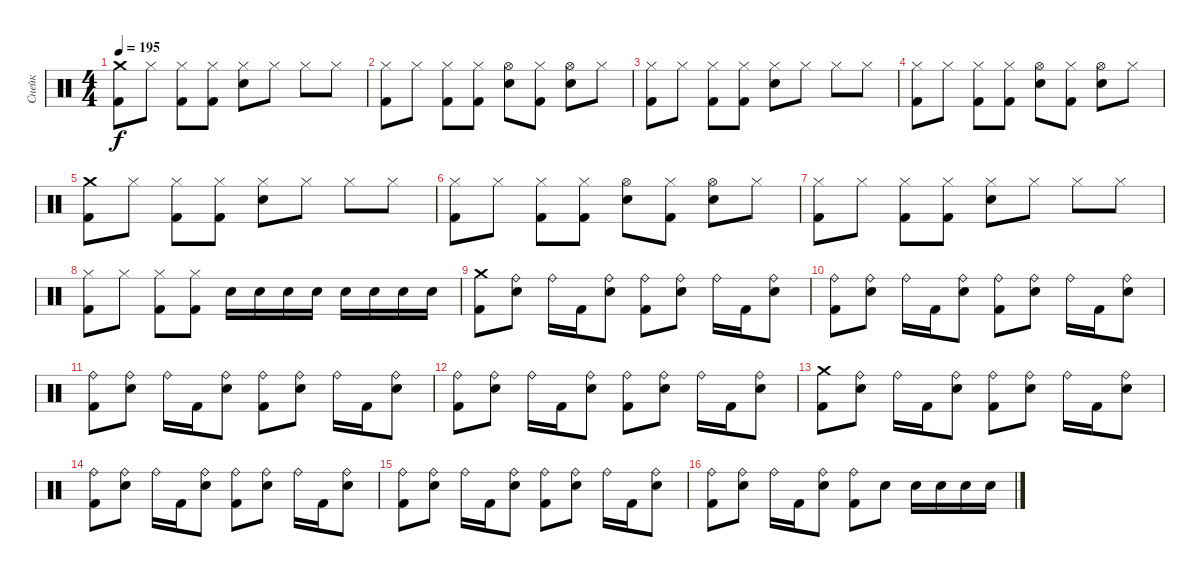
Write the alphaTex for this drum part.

\track ("Снейк" "Снейк") {instrument percussion}
\staff {score}
\articulation defaults
\ts (4 4)
\tempo 195
\clef neutral
\ks c
("Crash medium (hit)" "Kick (hit) 2").8{dy f} "Hi-Hat (closed)".8 ("Kick (hit) 2" "Hi-Hat (closed)").8 ("Kick (hit) 2" "Hi-Hat (closed)").8 ("Electric Snare (hit)" "Hi-Hat (closed)").8 "Hi-Hat (closed)".8 "Hi-Hat (closed)".8 "Hi-Hat (closed)".8 |
("Kick (hit) 2" "Hi-Hat (closed)").8 "Hi-Hat (closed)".8 ("Kick (hit) 2" "Hi-Hat (closed)").8 ("Kick (hit) 2" "Hi-Hat (closed)").8 ("Electric Snare (hit)" "Hi-Hat (open)").8 ("Kick (hit) 2" "Hi-Hat (closed)").8 ("Electric Snare (hit)" "Hi-Hat (open)").8 "Hi-Hat (closed)".8 |
("Kick (hit) 2" "Hi-Hat (closed)").8 "Hi-Hat (closed)".8 ("Kick (hit) 2" "Hi-Hat (closed)").8 ("Kick (hit) 2" "Hi-Hat (closed)").8 ("Electric Snare (hit)" "Hi-Hat (closed)").8 "Hi-Hat (closed)".8 "Hi-Hat (closed)".8 "Hi-Hat (closed)".8 |
("Kick (hit) 2" "Hi-Hat (closed)").8 "Hi-Hat (closed)".8 ("Kick (hit) 2" "Hi-Hat (closed)").8 ("Kick (hit) 2" "Hi-Hat (closed)").8 ("Electric Snare (hit)" "Hi-Hat (open)").8 ("Kick (hit) 2" "Hi-Hat (closed)").8 ("Electric Snare (hit)" "Hi-Hat (open)").8 "Hi-Hat (closed)".8 |
("Crash medium (hit)" "Kick (hit) 2").8 "Hi-Hat (closed)".8 ("Kick (hit) 2" "Hi-Hat (closed)").8 ("Kick (hit) 2" "Hi-Hat (closed)").8 ("Electric Snare (hit)" "Hi-Hat (closed)").8 "Hi-Hat (closed)".8 "Hi-Hat (closed)".8 "Hi-Hat (closed)".8 |
("Kick (hit) 2" "Hi-Hat (closed)").8 "Hi-Hat (closed)".8 ("Kick (hit) 2" "Hi-Hat (closed)").8 ("Kick (hit) 2" "Hi-Hat (closed)").8 ("Electric Snare (hit)" "Hi-Hat (open)").8 ("Kick (hit) 2" "Hi-Hat (closed)").8 ("Electric Snare (hit)" "Hi-Hat (open)").8 "Hi-Hat (closed)".8 |
("Kick (hit) 2" "Hi-Hat (closed)").8 "Hi-Hat (closed)".8 ("Kick (hit) 2" "Hi-Hat (closed)").8 ("Kick (hit) 2" "Hi-Hat (closed)").8 ("Electric Snare (hit)" "Hi-Hat (closed)").8 "Hi-Hat (closed)".8 "Hi-Hat (closed)".8 "Hi-Hat (closed)".8 |
("Kick (hit) 2" "Hi-Hat (closed)").8 "Hi-Hat (closed)".8 ("Kick (hit) 2" "Hi-Hat (closed)").8 ("Kick (hit) 2" "Hi-Hat (closed)").8 "Electric Snare (hit)".16 "Electric Snare (hit)".16 "Electric Snare (hit)".16 "Electric Snare (hit)".16 "Electric Snare (hit)".16 "Electric Snare (hit)".16 "Electric Snare (hit)".16 "Electric Snare (hit)".16 |
("Kick (hit) 2" "Crash medium (hit)").8 ("Electric Snare (hit)" "Ride (bell)").8 "Ride (bell)".16 "Kick (hit) 2".16 ("Electric Snare (hit)" "Ride (bell)").8 ("Kick (hit) 2" "Ride (bell)").8 ("Electric Snare (hit)" "Ride (bell)").8 "Ride (bell)".16 "Kick (hit) 2".16 ("Electric Snare (hit)" "Ride (bell)").8 |
("Kick (hit) 2" "Ride (bell)").8 ("Electric Snare (hit)" "Ride (bell)").8 "Ride (bell)".16 "Kick (hit) 2".16 ("Electric Snare (hit)" "Ride (bell)").8 ("Kick (hit) 2" "Ride (bell)").8 ("Electric Snare (hit)" "Ride (bell)").8 "Ride (bell)".16 "Kick (hit) 2".16 ("Electric Snare (hit)" "Ride (bell)").8 |
("Kick (hit) 2" "Ride (bell)").8 ("Electric Snare (hit)" "Ride (bell)").8 "Ride (bell)".16 "Kick (hit) 2".16 ("Electric Snare (hit)" "Ride (bell)").8 ("Kick (hit) 2" "Ride (bell)").8 ("Electric Snare (hit)" "Ride (bell)").8 "Ride (bell)".16 "Kick (hit) 2".16 ("Electric Snare (hit)" "Ride (bell)").8 |
("Kick (hit) 2" "Ride (bell)").8 ("Electric Snare (hit)" "Ride (bell)").8 "Ride (bell)".16 "Kick (hit) 2".16 ("Electric Snare (hit)" "Ride (bell)").8 ("Kick (hit) 2" "Ride (bell)").8 ("Electric Snare (hit)" "Ride (bell)").8 "Ride (bell)".16 "Kick (hit) 2".16 ("Electric Snare (hit)" "Ride (bell)").8 |
("Kick (hit) 2" "Crash medium (hit)").8 ("Electric Snare (hit)" "Ride (bell)").8 "Ride (bell)".16 "Kick (hit) 2".16 ("Electric Snare (hit)" "Ride (bell)").8 ("Kick (hit) 2" "Ride (bell)").8 ("Electric Snare (hit)" "Ride (bell)").8 "Ride (bell)".16 "Kick (hit) 2".16 ("Electric Snare (hit)" "Ride (bell)").8 |
("Kick (hit) 2" "Ride (bell)").8 ("Electric Snare (hit)" "Ride (bell)").8 "Ride (bell)".16 "Kick (hit) 2".16 ("Electric Snare (hit)" "Ride (bell)").8 ("Kick (hit) 2" "Ride (bell)").8 ("Electric Snare (hit)" "Ride (bell)").8 "Ride (bell)".16 "Kick (hit) 2".16 ("Electric Snare (hit)" "Ride (bell)").8 |
("Kick (hit) 2" "Ride (bell)").8 ("Electric Snare (hit)" "Ride (bell)").8 "Ride (bell)".16 "Kick (hit) 2".16 ("Electric Snare (hit)" "Ride (bell)").8 ("Kick (hit) 2" "Ride (bell)").8 ("Electric Snare (hit)" "Ride (bell)").8 "Ride (bell)".16 "Kick (hit) 2".16 ("Electric Snare (hit)" "Ride (bell)").8 |
("Kick (hit) 2" "Ride (bell)").8 ("Electric Snare (hit)" "Ride (bell)").8 "Ride (bell)".16 "Kick (hit) 2".16 ("Electric Snare (hit)" "Ride (bell)").8 ("Kick (hit) 2" "Ride (bell)").8 "Electric Snare (hit)".8 "Electric Snare (hit)".16 "Electric Snare (hit)".16 "Electric Snare (hit)".16 "Electric Snare (hit)".16
